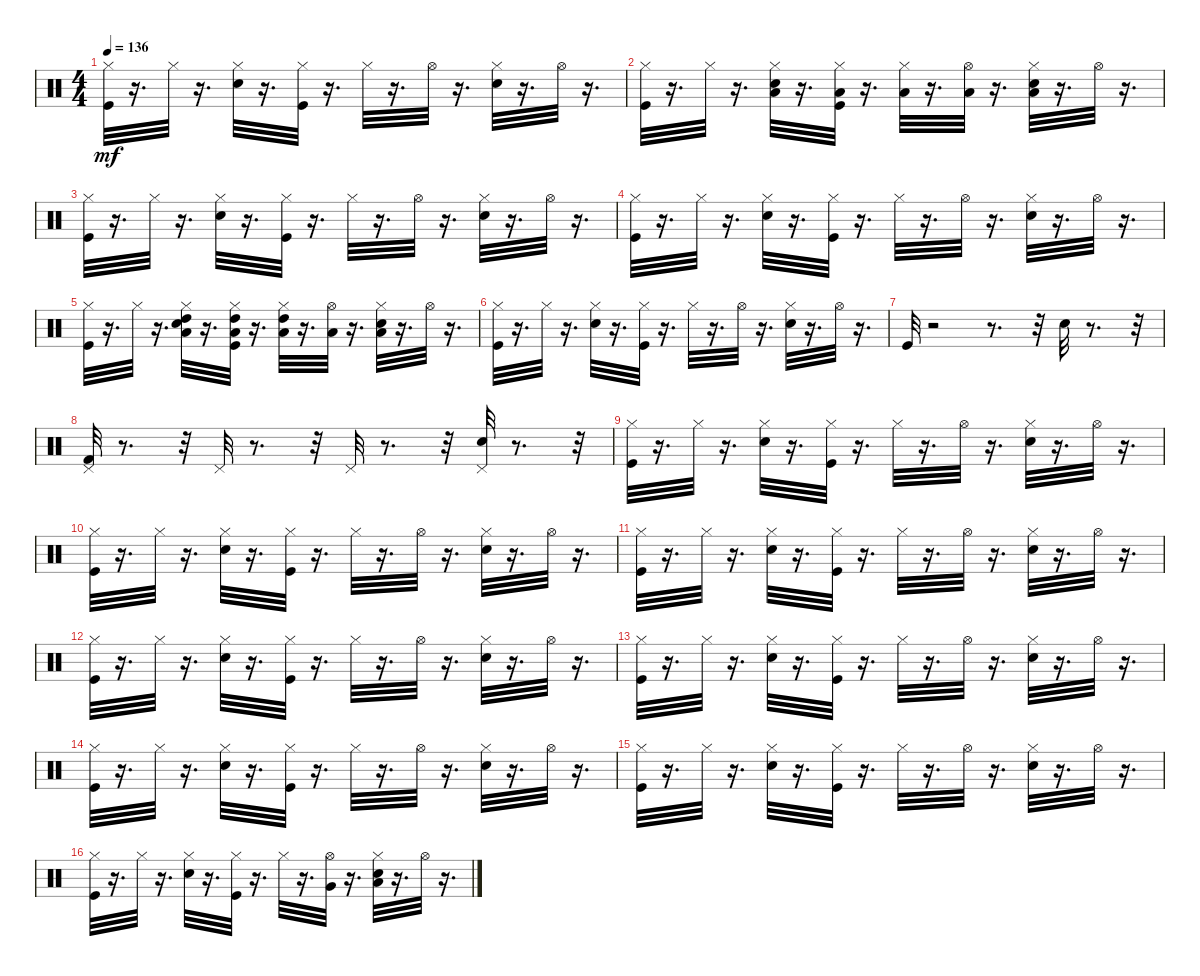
\track "" {instrument percussion}
\staff {score}
\articulation defaults
\ts (4 4)
\tempo 136
\clef neutral
\ks c
("Kick (hit)" "Hi-Hat (closed)").32{dy mf} r.16{d} "Hi-Hat (closed)".32 r.16{d} ("Snare (hit) 2" "Hi-Hat (closed)").32 r.16{d} ("Kick (hit)" "Hi-Hat (closed)").32 r.16{d} "Hi-Hat (closed)".32 r.16{d} "Hi-Hat (open)".32 r.16{d} ("Snare (hit) 2" "Hi-Hat (closed)").32 r.16{d} "Hi-Hat (open)".32 r.16{d} |
("Kick (hit)" "Hi-Hat (closed)").32 r.16{d} "Hi-Hat (closed)".32 r.16{d} ("Low Floor Tom (hit)" "Snare (hit) 2" "Hi-Hat (closed)").32 r.16{d} ("Low Floor Tom (hit)" "Kick (hit)" "Hi-Hat (closed)").32 r.16{d} ("Low Floor Tom (hit)" "Hi-Hat (closed)").32 r.16{d} ("Low Floor Tom (hit)" "Hi-Hat (open)").32 r.16{d} ("Low Floor Tom (hit)" "Snare (hit) 2" "Hi-Hat (closed)").32 r.16{d} "Hi-Hat (open)".32 r.16{d} |
("Kick (hit)" "Hi-Hat (closed)").32 r.16{d} "Hi-Hat (closed)".32 r.16{d} ("Snare (hit) 2" "Hi-Hat (closed)").32 r.16{d} ("Kick (hit)" "Hi-Hat (closed)").32 r.16{d} "Hi-Hat (closed)".32 r.16{d} "Hi-Hat (open)".32 r.16{d} ("Snare (hit) 2" "Hi-Hat (closed)").32 r.16{d} "Hi-Hat (open)".32 r.16{d} |
("Kick (hit)" "Hi-Hat (closed)").32 r.16{d} "Hi-Hat (closed)".32 r.16{d} ("Snare (hit) 2" "Hi-Hat (closed)").32 r.16{d} ("Kick (hit)" "Hi-Hat (closed)").32 r.16{d} "Hi-Hat (closed)".32 r.16{d} "Hi-Hat (open)".32 r.16{d} ("Snare (hit) 2" "Hi-Hat (closed)").32 r.16{d} "Hi-Hat (open)".32 r.16{d} |
("Kick (hit)" "Hi-Hat (closed)").32 r.16{d} "Hi-Hat (closed)".32 r.16{d} ("High Tom (hit)" "Low Floor Tom (hit)" "Snare (hit) 2" "Hi-Hat (closed)").32 r.16{d} ("High Tom (hit)" "Low Floor Tom (hit)" "Kick (hit)" "Hi-Hat (closed)").32 r.16{d} ("High Tom (hit)" "Low Floor Tom (hit)" "Hi-Hat (closed)").32 r.16{d} ("Low Floor Tom (hit)" "Hi-Hat (open)").32 r.16{d} ("Low Floor Tom (hit)" "Snare (hit) 2" "Hi-Hat (closed)").32 r.16{d} "Hi-Hat (open)".32 r.16{d} |
("Kick (hit)" "Hi-Hat (closed)").32 r.16{d} "Hi-Hat (closed)".32 r.16{d} ("Snare (hit) 2" "Hi-Hat (closed)").32 r.16{d} ("Kick (hit)" "Hi-Hat (closed)").32 r.16{d} "Hi-Hat (closed)".32 r.16{d} "Hi-Hat (open)".32 r.16{d} ("Snare (hit) 2" "Hi-Hat (closed)").32 r.16{d} "Hi-Hat (open)".32 r.16{d} |
"Kick (hit)".32 r.2 r.8{d} r.32 "Snare (hit) 2".32 r.8{d} r.32 |
("Pedal Hi-Hat (hit)" "Kick (hit) 2").32 r.8{d} r.32 "Pedal Hi-Hat (hit)".32 r.8{d} r.32 "Pedal Hi-Hat (hit)".32 r.8{d} r.32 ("Pedal Hi-Hat (hit)" "Snare (hit) 2").32 r.8{d} r.32 |
("Kick (hit)" "Hi-Hat (closed)").32 r.16{d} "Hi-Hat (closed)".32 r.16{d} ("Snare (hit) 2" "Hi-Hat (closed)").32 r.16{d} ("Kick (hit)" "Hi-Hat (closed)").32 r.16{d} "Hi-Hat (closed)".32 r.16{d} "Hi-Hat (open)".32 r.16{d} ("Snare (hit) 2" "Hi-Hat (closed)").32 r.16{d} "Hi-Hat (open)".32 r.16{d} |
("Kick (hit)" "Hi-Hat (closed)").32 r.16{d} "Hi-Hat (closed)".32 r.16{d} ("Snare (hit) 2" "Hi-Hat (closed)").32 r.16{d} ("Kick (hit)" "Hi-Hat (closed)").32 r.16{d} "Hi-Hat (closed)".32 r.16{d} "Hi-Hat (open)".32 r.16{d} ("Snare (hit) 2" "Hi-Hat (closed)").32 r.16{d} "Hi-Hat (open)".32 r.16{d} |
("Kick (hit)" "Hi-Hat (closed)").32 r.16{d} "Hi-Hat (closed)".32 r.16{d} ("Snare (hit) 2" "Hi-Hat (closed)").32 r.16{d} ("Kick (hit)" "Hi-Hat (closed)").32 r.16{d} "Hi-Hat (closed)".32 r.16{d} "Hi-Hat (open)".32 r.16{d} ("Snare (hit) 2" "Hi-Hat (closed)").32 r.16{d} "Hi-Hat (open)".32 r.16{d} |
("Kick (hit)" "Hi-Hat (closed)").32 r.16{d} "Hi-Hat (closed)".32 r.16{d} ("Snare (hit) 2" "Hi-Hat (closed)").32 r.16{d} ("Kick (hit)" "Hi-Hat (closed)").32 r.16{d} "Hi-Hat (closed)".32 r.16{d} "Hi-Hat (open)".32 r.16{d} ("Snare (hit) 2" "Hi-Hat (closed)").32 r.16{d} "Hi-Hat (open)".32 r.16{d} |
("Kick (hit)" "Hi-Hat (closed)").32 r.16{d} "Hi-Hat (closed)".32 r.16{d} ("Snare (hit) 2" "Hi-Hat (closed)").32 r.16{d} ("Kick (hit)" "Hi-Hat (closed)").32 r.16{d} "Hi-Hat (closed)".32 r.16{d} "Hi-Hat (open)".32 r.16{d} ("Snare (hit) 2" "Hi-Hat (closed)").32 r.16{d} "Hi-Hat (open)".32 r.16{d} |
("Kick (hit)" "Hi-Hat (closed)").32 r.16{d} "Hi-Hat (closed)".32 r.16{d} ("Snare (hit) 2" "Hi-Hat (closed)").32 r.16{d} ("Kick (hit)" "Hi-Hat (closed)").32 r.16{d} "Hi-Hat (closed)".32 r.16{d} "Hi-Hat (open)".32 r.16{d} ("Snare (hit) 2" "Hi-Hat (closed)").32 r.16{d} "Hi-Hat (open)".32 r.16{d} |
("Kick (hit)" "Hi-Hat (closed)").32 r.16{d} "Hi-Hat (closed)".32 r.16{d} ("Snare (hit) 2" "Hi-Hat (closed)").32 r.16{d} ("Kick (hit)" "Hi-Hat (closed)").32 r.16{d} "Hi-Hat (closed)".32 r.16{d} "Hi-Hat (open)".32 r.16{d} ("Snare (hit) 2" "Hi-Hat (closed)").32 r.16{d} "Hi-Hat (open)".32 r.16{d} |
("Kick (hit)" "Hi-Hat (closed)").32 r.16{d} "Hi-Hat (closed)".32 r.16{d} ("Snare (hit) 2" "Hi-Hat (closed)").32 r.16{d} ("Kick (hit)" "Hi-Hat (closed)").32 r.16{d} "Hi-Hat (closed)".32 r.16{d} ("Very Low Tom (hit)" "Hi-Hat (open)").32 r.16{d} ("Low Floor Tom (hit)" "Snare (hit) 2" "Hi-Hat (closed)").32 r.16{d} "Hi-Hat (open)".32 r.16{d}
